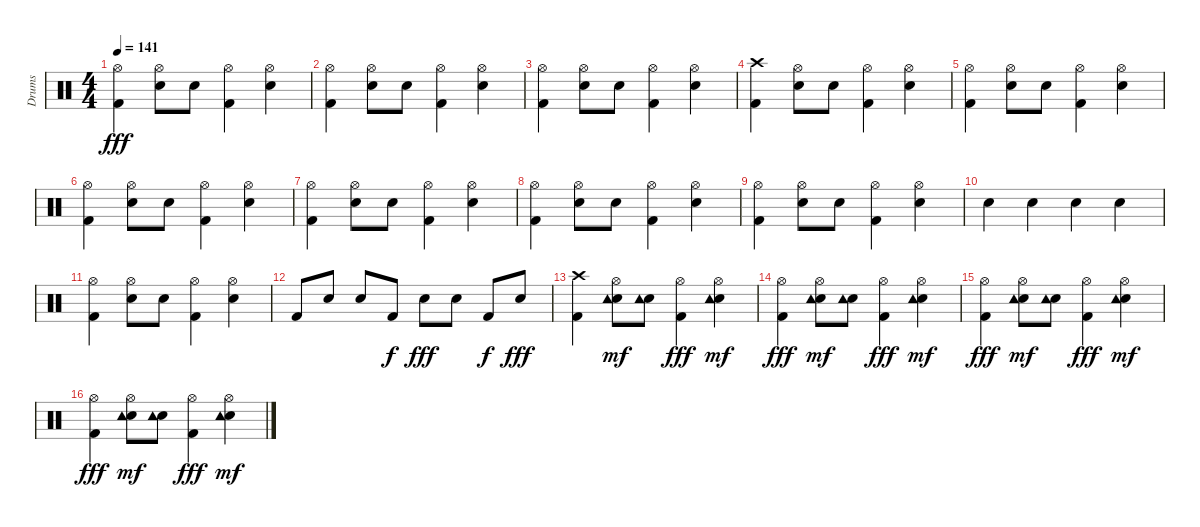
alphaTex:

\track ("Drums" "Drums") {instrument percussion}
\staff {score}
\articulation defaults
\ts (4 4)
\tempo 141
\clef neutral
\ks c
("Hi-Hat (open)" "Kick (hit) 2").4{dy fff} ("Hi-Hat (open)" "Electric Snare (hit)").8 "Electric Snare (hit)".8 ("Hi-Hat (open)" "Kick (hit) 2").4 ("Hi-Hat (open)" "Electric Snare (hit)").4 |
("Hi-Hat (open)" "Kick (hit) 2").4 ("Hi-Hat (open)" "Electric Snare (hit)").8 "Electric Snare (hit)".8 ("Hi-Hat (open)" "Kick (hit) 2").4 ("Hi-Hat (open)" "Electric Snare (hit)").4 |
("Hi-Hat (open)" "Kick (hit) 2").4 ("Hi-Hat (open)" "Electric Snare (hit)").8 "Electric Snare (hit)".8 ("Hi-Hat (open)" "Kick (hit) 2").4 ("Hi-Hat (open)" "Electric Snare (hit)").4 |
("Crash high (hit)" "Kick (hit) 2").4 ("Hi-Hat (open)" "Electric Snare (hit)").8 "Electric Snare (hit)".8 ("Hi-Hat (open)" "Kick (hit) 2").4 ("Hi-Hat (open)" "Electric Snare (hit)").4 |
("Hi-Hat (open)" "Kick (hit) 2").4 ("Hi-Hat (open)" "Electric Snare (hit)").8 "Electric Snare (hit)".8 ("Hi-Hat (open)" "Kick (hit) 2").4 ("Hi-Hat (open)" "Electric Snare (hit)").4 |
("Hi-Hat (open)" "Kick (hit) 2").4 ("Hi-Hat (open)" "Electric Snare (hit)").8 "Electric Snare (hit)".8 ("Hi-Hat (open)" "Kick (hit) 2").4 ("Hi-Hat (open)" "Electric Snare (hit)").4 |
("Hi-Hat (open)" "Kick (hit) 2").4 ("Hi-Hat (open)" "Electric Snare (hit)").8 "Electric Snare (hit)".8 ("Hi-Hat (open)" "Kick (hit) 2").4 ("Hi-Hat (open)" "Electric Snare (hit)").4 |
("Hi-Hat (open)" "Kick (hit) 2").4 ("Hi-Hat (open)" "Electric Snare (hit)").8 "Electric Snare (hit)".8 ("Hi-Hat (open)" "Kick (hit) 2").4 ("Hi-Hat (open)" "Electric Snare (hit)").4 |
("Hi-Hat (open)" "Kick (hit) 2").4 ("Hi-Hat (open)" "Electric Snare (hit)").8 "Electric Snare (hit)".8 ("Hi-Hat (open)" "Kick (hit) 2").4 ("Hi-Hat (open)" "Electric Snare (hit)").4 |
"Electric Snare (hit)".4 "Electric Snare (hit)".4 "Electric Snare (hit)".4 "Electric Snare (hit)".4 |
("Hi-Hat (open)" "Kick (hit) 2").4 ("Hi-Hat (open)" "Electric Snare (hit)").8 "Electric Snare (hit)".8 ("Hi-Hat (open)" "Kick (hit) 2").4 ("Hi-Hat (open)" "Electric Snare (hit)").4 |
"Kick (hit) 2".8 "Electric Snare (hit)".8 "Electric Snare (hit)".8 "Kick (hit) 2".8{dy f} "Electric Snare (hit)".8{dy fff} "Electric Snare (hit)".8 "Kick (hit) 2".8{dy f} "Electric Snare (hit)".8{dy fff} |
("Crash high (hit)" "Kick (hit) 2").4 ("Hi-Hat (open)" "Electric Snare (hit)" "Tambourine (hit)").8{dy mf} ("Electric Snare (hit)" "Tambourine (hit)").8 ("Hi-Hat (open)" "Kick (hit) 2").4{dy fff} ("Hi-Hat (open)" "Electric Snare (hit)" "Tambourine (hit)").4{dy mf} |
("Hi-Hat (open)" "Kick (hit) 2").4{dy fff} ("Hi-Hat (open)" "Electric Snare (hit)" "Tambourine (hit)").8{dy mf} ("Electric Snare (hit)" "Tambourine (hit)").8 ("Hi-Hat (open)" "Kick (hit) 2").4{dy fff} ("Hi-Hat (open)" "Electric Snare (hit)" "Tambourine (hit)").4{dy mf} |
("Hi-Hat (open)" "Kick (hit) 2").4{dy fff} ("Hi-Hat (open)" "Electric Snare (hit)" "Tambourine (hit)").8{dy mf} ("Electric Snare (hit)" "Tambourine (hit)").8 ("Hi-Hat (open)" "Kick (hit) 2").4{dy fff} ("Hi-Hat (open)" "Electric Snare (hit)" "Tambourine (hit)").4{dy mf} |
("Hi-Hat (open)" "Kick (hit) 2").4{dy fff} ("Hi-Hat (open)" "Electric Snare (hit)" "Tambourine (hit)").8{dy mf} ("Electric Snare (hit)" "Tambourine (hit)").8 ("Hi-Hat (open)" "Kick (hit) 2").4{dy fff} ("Hi-Hat (open)" "Electric Snare (hit)" "Tambourine (hit)").4{dy mf}
